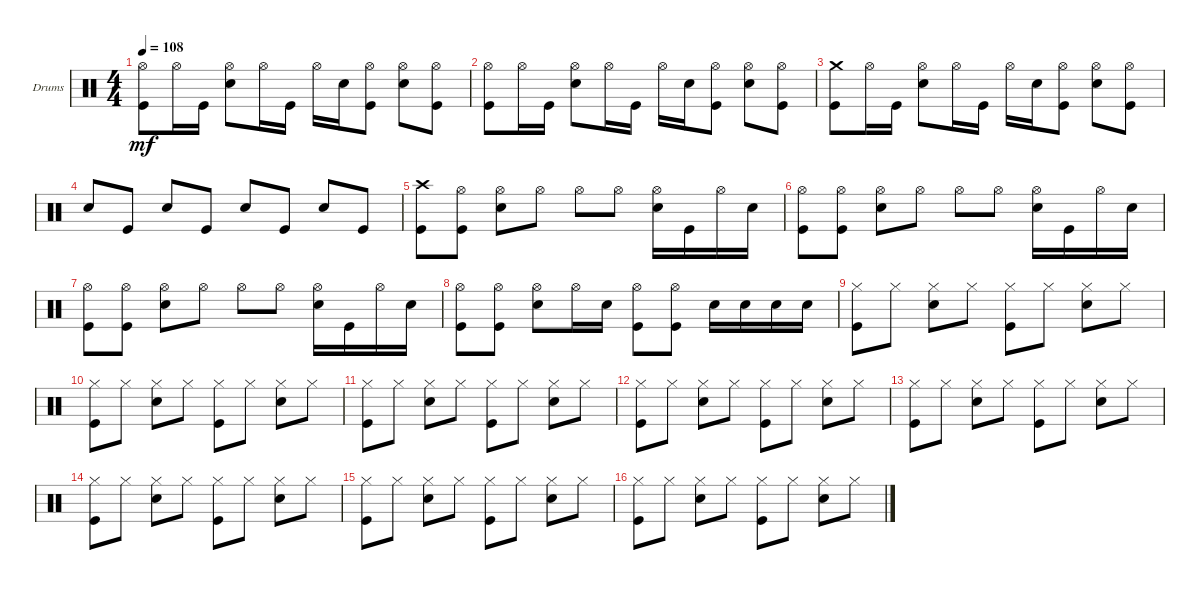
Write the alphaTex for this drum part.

\defaultSystemsLayout 4
\bracketExtendMode groupsimilarinstruments
\firstSystemTrackNameOrientation horizontal
\otherSystemsTrackNameOrientation horizontal
\track ("Drumkit" "Drums") {instrument percussion}
\staff {score}
\articulation defaults
\ts (4 4)
\tempo 108
\clef neutral
\ks c
("Kick (hit)" "Hi-Hat (open)").8{dy mf} "Hi-Hat (open)".16 "Kick (hit)".16 ("Snare (hit) 2" "Hi-Hat (open)").8 "Hi-Hat (open)".16 "Kick (hit)".16 "Hi-Hat (open)".16 "Snare (hit) 2".16 ("Kick (hit)" "Hi-Hat (open)").8 ("Snare (hit) 2" "Hi-Hat (open)").8 ("Kick (hit)" "Hi-Hat (open)").8 |
("Kick (hit)" "Hi-Hat (open)").8 "Hi-Hat (open)".16 "Kick (hit)".16 ("Snare (hit) 2" "Hi-Hat (open)").8 "Hi-Hat (open)".16 "Kick (hit)".16 "Hi-Hat (open)".16 "Snare (hit) 2".16 ("Kick (hit)" "Hi-Hat (open)").8 ("Snare (hit) 2" "Hi-Hat (open)").8 ("Kick (hit)" "Hi-Hat (open)").8 |
("Kick (hit)" "Crash medium (hit)").8 "Hi-Hat (open)".16 "Kick (hit)".16 ("Snare (hit) 2" "Hi-Hat (open)").8 "Hi-Hat (open)".16 "Kick (hit)".16 "Hi-Hat (open)".16 "Snare (hit) 2".16 ("Kick (hit)" "Hi-Hat (open)").8 ("Snare (hit) 2" "Hi-Hat (open)").8 ("Kick (hit)" "Hi-Hat (open)").8 |
"Snare (hit) 2".8 "Kick (hit)".8 "Snare (hit) 2".8 "Kick (hit)".8 "Snare (hit) 2".8 "Kick (hit)".8 "Snare (hit) 2".8 "Kick (hit)".8 |
("Kick (hit)" "Crash high (hit)").8 ("Kick (hit)" "Hi-Hat (open)").8 ("Snare (hit) 2" "Hi-Hat (open)").8 "Hi-Hat (open)".8 "Hi-Hat (open)".8 "Hi-Hat (open)".8 ("Snare (hit) 2" "Hi-Hat (open)").16 "Kick (hit)".16 "Hi-Hat (open)".16 "Snare (hit) 2".16 |
("Kick (hit)" "Hi-Hat (open)").8 ("Kick (hit)" "Hi-Hat (open)").8 ("Snare (hit) 2" "Hi-Hat (open)").8 "Hi-Hat (open)".8 "Hi-Hat (open)".8 "Hi-Hat (open)".8 ("Snare (hit) 2" "Hi-Hat (open)").16 "Kick (hit)".16 "Hi-Hat (open)".16 "Snare (hit) 2".16 |
("Kick (hit)" "Hi-Hat (open)").8 ("Kick (hit)" "Hi-Hat (open)").8 ("Snare (hit) 2" "Hi-Hat (open)").8 "Hi-Hat (open)".8 "Hi-Hat (open)".8 "Hi-Hat (open)".8 ("Snare (hit) 2" "Hi-Hat (open)").16 "Kick (hit)".16 "Hi-Hat (open)".16 "Snare (hit) 2".16 |
("Kick (hit)" "Hi-Hat (open)").8 ("Kick (hit)" "Hi-Hat (open)").8 ("Snare (hit) 2" "Hi-Hat (open)").8 "Hi-Hat (open)".16 "Snare (hit) 2".16 ("Kick (hit)" "Hi-Hat (open)").8 ("Kick (hit)" "Hi-Hat (open)").8 "Snare (hit) 2".16 "Snare (hit) 2".16 "Snare (hit) 2".16 "Snare (hit) 2".16 |
("Hi-Hat (closed)" "Kick (hit)").8 "Hi-Hat (closed)".8 ("Hi-Hat (closed)" "Snare (hit) 2").8 "Hi-Hat (closed)".8 ("Hi-Hat (closed)" "Kick (hit)").8 "Hi-Hat (closed)".8 ("Hi-Hat (closed)" "Snare (hit) 2").8 "Hi-Hat (closed)".8 |
("Hi-Hat (closed)" "Kick (hit)").8 "Hi-Hat (closed)".8 ("Hi-Hat (closed)" "Snare (hit) 2").8 "Hi-Hat (closed)".8 ("Hi-Hat (closed)" "Kick (hit)").8 "Hi-Hat (closed)".8 ("Hi-Hat (closed)" "Snare (hit) 2").8 "Hi-Hat (closed)".8 |
("Hi-Hat (closed)" "Kick (hit)").8 "Hi-Hat (closed)".8 ("Hi-Hat (closed)" "Snare (hit) 2").8 "Hi-Hat (closed)".8 ("Hi-Hat (closed)" "Kick (hit)").8 "Hi-Hat (closed)".8 ("Hi-Hat (closed)" "Snare (hit) 2").8 "Hi-Hat (closed)".8 |
("Hi-Hat (closed)" "Kick (hit)").8 "Hi-Hat (closed)".8 ("Hi-Hat (closed)" "Snare (hit) 2").8 "Hi-Hat (closed)".8 ("Hi-Hat (closed)" "Kick (hit)").8 "Hi-Hat (closed)".8 ("Hi-Hat (closed)" "Snare (hit) 2").8 "Hi-Hat (closed)".8 |
("Hi-Hat (closed)" "Kick (hit)").8 "Hi-Hat (closed)".8 ("Hi-Hat (closed)" "Snare (hit) 2").8 "Hi-Hat (closed)".8 ("Hi-Hat (closed)" "Kick (hit)").8 "Hi-Hat (closed)".8 ("Hi-Hat (closed)" "Snare (hit) 2").8 "Hi-Hat (closed)".8 |
("Hi-Hat (closed)" "Kick (hit)").8 "Hi-Hat (closed)".8 ("Hi-Hat (closed)" "Snare (hit) 2").8 "Hi-Hat (closed)".8 ("Hi-Hat (closed)" "Kick (hit)").8 "Hi-Hat (closed)".8 ("Hi-Hat (closed)" "Snare (hit) 2").8 "Hi-Hat (closed)".8 |
("Hi-Hat (closed)" "Kick (hit)").8 "Hi-Hat (closed)".8 ("Hi-Hat (closed)" "Snare (hit) 2").8 "Hi-Hat (closed)".8 ("Hi-Hat (closed)" "Kick (hit)").8 "Hi-Hat (closed)".8 ("Hi-Hat (closed)" "Snare (hit) 2").8 "Hi-Hat (closed)".8 |
("Hi-Hat (closed)" "Kick (hit)").8 "Hi-Hat (closed)".8 ("Hi-Hat (closed)" "Snare (hit) 2").8 "Hi-Hat (closed)".8 ("Hi-Hat (closed)" "Kick (hit)").8 "Hi-Hat (closed)".8 ("Hi-Hat (closed)" "Snare (hit) 2").8 "Hi-Hat (closed)".8
